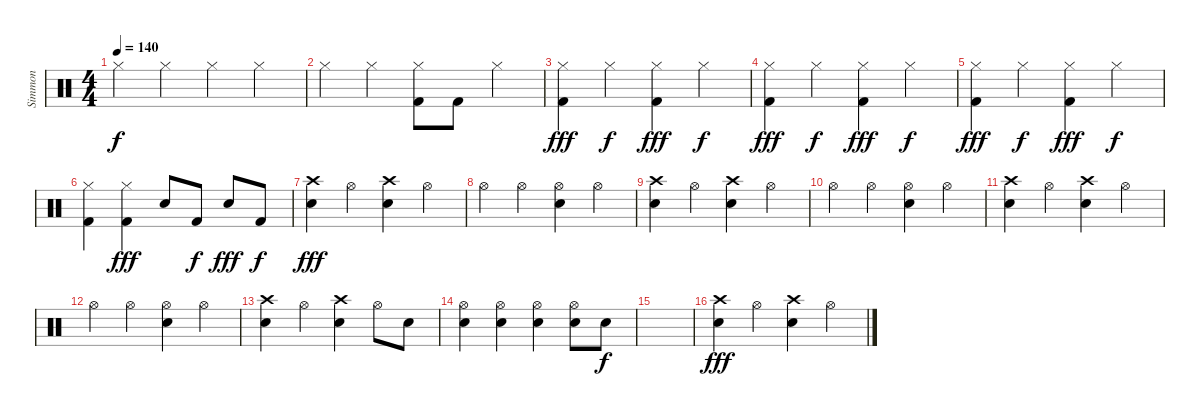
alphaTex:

\track ("Simmon" "Simmon") {instrument percussion}
\staff {score}
\articulation defaults
\ts (4 4)
\tempo 140
\clef neutral
\ks c "Hi-Hat (closed)".4{dy f} "Hi-Hat (closed)".4 "Hi-Hat (closed)".4 "Hi-Hat (closed)".4
|
"Hi-Hat (closed)".4 "Hi-Hat (closed)".4 ("Kick (hit) 2" "Hi-Hat (closed)").8 "Kick (hit) 2".8 "Hi-Hat (closed)".4 |
("Kick (hit) 2" "Hi-Hat (closed)").4{dy fff} "Hi-Hat (closed)".4{dy f} ("Kick (hit) 2" "Hi-Hat (closed)").4{dy fff} "Hi-Hat (closed)".4{dy f} |
("Kick (hit) 2" "Hi-Hat (closed)").4{dy fff} "Hi-Hat (closed)".4{dy f} ("Kick (hit) 2" "Hi-Hat (closed)").4{dy fff} "Hi-Hat (closed)".4{dy f} |
("Kick (hit) 2" "Hi-Hat (closed)").4{dy fff} "Hi-Hat (closed)".4{dy f} ("Kick (hit) 2" "Hi-Hat (closed)").4{dy fff} "Hi-Hat (closed)".4{dy f} |
("Kick (hit) 2" "Hi-Hat (closed)").4 ("Kick (hit) 2" "Hi-Hat (closed)").4{dy fff} "Electric Snare (hit)".8 "Kick (hit) 2".8{dy f} "Electric Snare (hit)".8{dy fff} "Kick (hit) 2".8{dy f} |
("Crash high (hit)" "Electric Snare (hit)").4{dy fff} "Hi-Hat (open)".4 ("Crash high (hit)" "Electric Snare (hit)").4 "Hi-Hat (open)".4 |
"Hi-Hat (open)".4 "Hi-Hat (open)".4 ("Electric Snare (hit)" "Hi-Hat (open)").4 "Hi-Hat (open)".4 |
("Crash high (hit)" "Electric Snare (hit)").4 "Hi-Hat (open)".4 ("Crash high (hit)" "Electric Snare (hit)").4 "Hi-Hat (open)".4 |
"Hi-Hat (open)".4 "Hi-Hat (open)".4 ("Electric Snare (hit)" "Hi-Hat (open)").4 "Hi-Hat (open)".4 |
("Crash high (hit)" "Electric Snare (hit)").4 "Hi-Hat (open)".4 ("Crash high (hit)" "Electric Snare (hit)").4 "Hi-Hat (open)".4 |
"Hi-Hat (open)".4 "Hi-Hat (open)".4 ("Electric Snare (hit)" "Hi-Hat (open)").4 "Hi-Hat (open)".4 |
("Crash high (hit)" "Electric Snare (hit)").4 "Hi-Hat (open)".4 ("Crash high (hit)" "Electric Snare (hit)").4 "Hi-Hat (open)".8 "Electric Snare (hit)".8 |
("Electric Snare (hit)" "Hi-Hat (open)").4 ("Electric Snare (hit)" "Hi-Hat (open)").4 ("Electric Snare (hit)" "Hi-Hat (open)").4 ("Electric Snare (hit)" "Hi-Hat (open)").8 "Electric Snare (hit)".8{dy f} |
|
("Crash high (hit)" "Electric Snare (hit)").4{dy fff} "Hi-Hat (open)".4 ("Crash high (hit)" "Electric Snare (hit)").4 "Hi-Hat (open)".4
